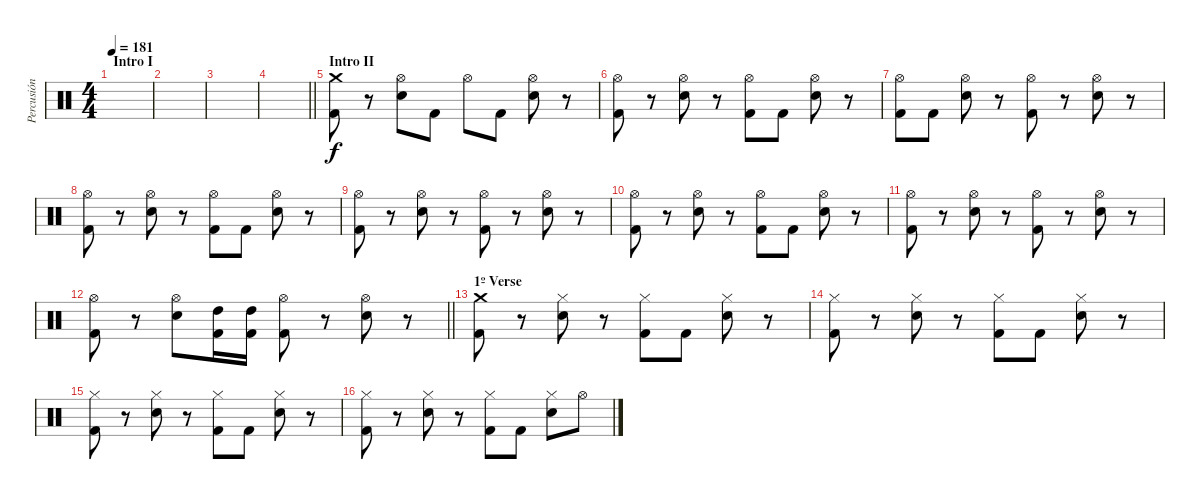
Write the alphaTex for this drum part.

\track ("Percusión" "Percusión") {instrument percussion}
\staff {score}
\articulation defaults
\ts (4 4)
\section ("" "Intro I")
\tempo 181
\clef neutral
\ks c
|
|
|
\barLineRight lightlight
|
\section ("" "Intro II")
("Crash medium (hit)" "Kick (hit) 2").8 r.8 ("Hi-Hat (open)" "Electric Snare (hit)").8 "Kick (hit) 2".8 "Hi-Hat (open)".8 "Kick (hit) 2".8 ("Hi-Hat (open)" "Electric Snare (hit)").8 r.8 |
("Hi-Hat (open)" "Kick (hit) 2").8 r.8 ("Hi-Hat (open)" "Electric Snare (hit)").8 r.8 ("Hi-Hat (open)" "Kick (hit) 2").8 "Kick (hit) 2".8 ("Hi-Hat (open)" "Electric Snare (hit)").8 r.8 |
("Hi-Hat (open)" "Kick (hit) 2").8 "Kick (hit) 2".8 ("Hi-Hat (open)" "Electric Snare (hit)").8 r.8 ("Hi-Hat (open)" "Kick (hit) 2").8 r.8 ("Hi-Hat (open)" "Electric Snare (hit)").8 r.8 |
("Hi-Hat (open)" "Kick (hit) 2").8 r.8 ("Hi-Hat (open)" "Electric Snare (hit)").8 r.8 ("Hi-Hat (open)" "Kick (hit) 2").8 "Kick (hit) 2".8 ("Hi-Hat (open)" "Electric Snare (hit)").8 r.8 |
("Hi-Hat (open)" "Kick (hit) 2").8 r.8 ("Hi-Hat (open)" "Electric Snare (hit)").8 r.8 ("Hi-Hat (open)" "Kick (hit) 2").8 r.8 ("Hi-Hat (open)" "Electric Snare (hit)").8 r.8 |
("Hi-Hat (open)" "Kick (hit) 2").8 r.8 ("Hi-Hat (open)" "Electric Snare (hit)").8 r.8 ("Hi-Hat (open)" "Kick (hit) 2").8 "Kick (hit) 2".8 ("Hi-Hat (open)" "Electric Snare (hit)").8 r.8 |
("Hi-Hat (open)" "Kick (hit) 2").8 r.8 ("Hi-Hat (open)" "Electric Snare (hit)").8 r.8 ("Hi-Hat (open)" "Kick (hit) 2").8 r.8 ("Hi-Hat (open)" "Electric Snare (hit)").8 r.8 |
\barLineRight lightlight
("Hi-Hat (open)" "Kick (hit) 2").8 r.8 ("Hi-Hat (open)" "Electric Snare (hit)").8 ("High Tom (hit)" "Kick (hit) 2").16 ("High Tom (hit)" "Kick (hit) 2").16 ("Hi-Hat (open)" "Kick (hit) 2").8 r.8 ("Hi-Hat (open)" "Electric Snare (hit)").8 r.8 |
\section ("" "1º Verse")
("Crash medium (hit)" "Kick (hit) 2").8 r.8 ("Hi-Hat (closed)" "Electric Snare (hit)").8 r.8 ("Hi-Hat (closed)" "Kick (hit) 2").8 "Kick (hit) 2".8 ("Hi-Hat (closed)" "Electric Snare (hit)").8 r.8 |
("Hi-Hat (closed)" "Kick (hit) 2").8 r.8 ("Hi-Hat (closed)" "Electric Snare (hit)").8 r.8 ("Hi-Hat (closed)" "Kick (hit) 2").8 "Kick (hit) 2".8 ("Hi-Hat (closed)" "Electric Snare (hit)").8 r.8 |
("Hi-Hat (closed)" "Kick (hit) 2").8 r.8 ("Hi-Hat (closed)" "Electric Snare (hit)").8 r.8 ("Hi-Hat (closed)" "Kick (hit) 2").8 "Kick (hit) 2".8 ("Hi-Hat (closed)" "Electric Snare (hit)").8 r.8 |
("Hi-Hat (closed)" "Kick (hit) 2").8 r.8 ("Hi-Hat (closed)" "Electric Snare (hit)").8 r.8 ("Hi-Hat (closed)" "Kick (hit) 2").8 "Kick (hit) 2".8 ("Hi-Hat (closed)" "Electric Snare (hit)").8 "Hi-Hat (open)".8
